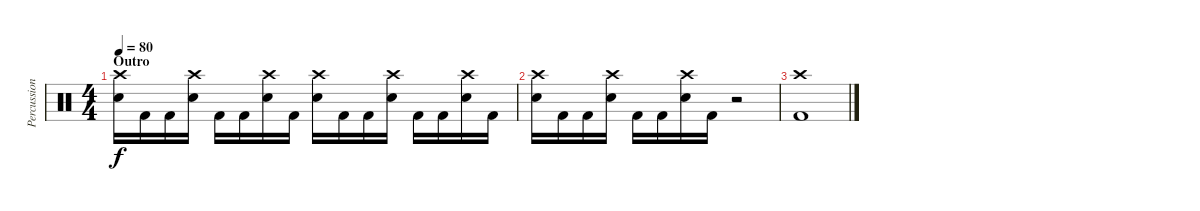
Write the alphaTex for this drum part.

\track ("Percussion" "Percussion") {instrument percussion}
\staff {score}
\articulation defaults
\ts (4 4)
\section ("" "Outro")
\tempo 80
\clef neutral
\ks c
("Crash high (hit)" "Electric Snare (hit)").16{dy f} "Kick (hit) 2".16 "Kick (hit) 2".16 ("Crash high (hit)" "Electric Snare (hit)").16 "Kick (hit) 2".16 "Kick (hit) 2".16 ("Crash high (hit)" "Electric Snare (hit)").16 "Kick (hit) 2".16 ("Crash high (hit)" "Electric Snare (hit)").16 "Kick (hit) 2".16 "Kick (hit) 2".16 ("Crash high (hit)" "Electric Snare (hit)").16 "Kick (hit) 2".16 "Kick (hit) 2".16 ("Crash high (hit)" "Electric Snare (hit)").16 "Kick (hit) 2".16 |
("Crash high (hit)" "Electric Snare (hit)").16 "Kick (hit) 2".16 "Kick (hit) 2".16 ("Crash high (hit)" "Electric Snare (hit)").16 "Kick (hit) 2".16 "Kick (hit) 2".16 ("Crash high (hit)" "Electric Snare (hit)").16 "Kick (hit) 2".16 r.2 |
("Crash high (hit)" "Kick (hit) 2").1{volume 0}
